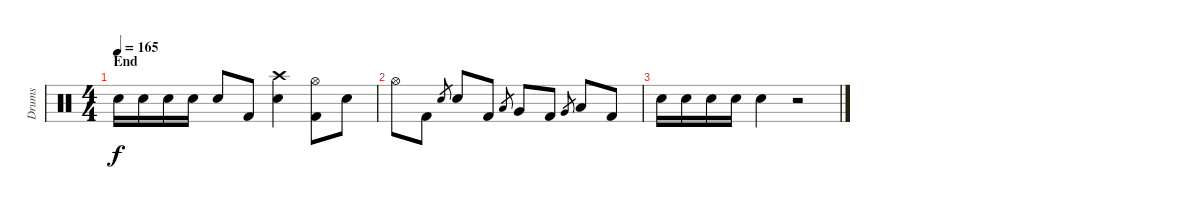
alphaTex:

\track ("Drums" "Drums") {instrument percussion}
\staff {score}
\articulation defaults
\ts (4 4)
\section ("" "End")
\tempo 165
\clef neutral
\ks c "Electric Snare (hit)".16{dy f} "Electric Snare (hit)".16 "Electric Snare (hit)".16 "Electric Snare (hit)".16 "Electric Snare (hit)".8 "Kick (hit) 2".8
("Crash high (hit)" "Electric Snare (hit)").4 ("Hi-Hat (open)" "Kick (hit) 2").8 "Electric Snare (hit)".8 |
"Hi-Hat (open)".8 "Kick (hit) 2".8 "Electric Snare (hit)".8{gr} "Electric Snare (hit)".8 "Kick (hit) 2".8 "Low Tom (hit)".8{gr} "Very Low Tom (hit)".8 "Kick (hit) 2".8 "Very Low Tom (hit)".8{gr} "Low Floor Tom (hit)".8 "Kick (hit) 2".8 |
"Electric Snare (hit)".16 "Electric Snare (hit)".16 "Electric Snare (hit)".16 "Electric Snare (hit)".16 "Electric Snare (hit)".4 r.2
